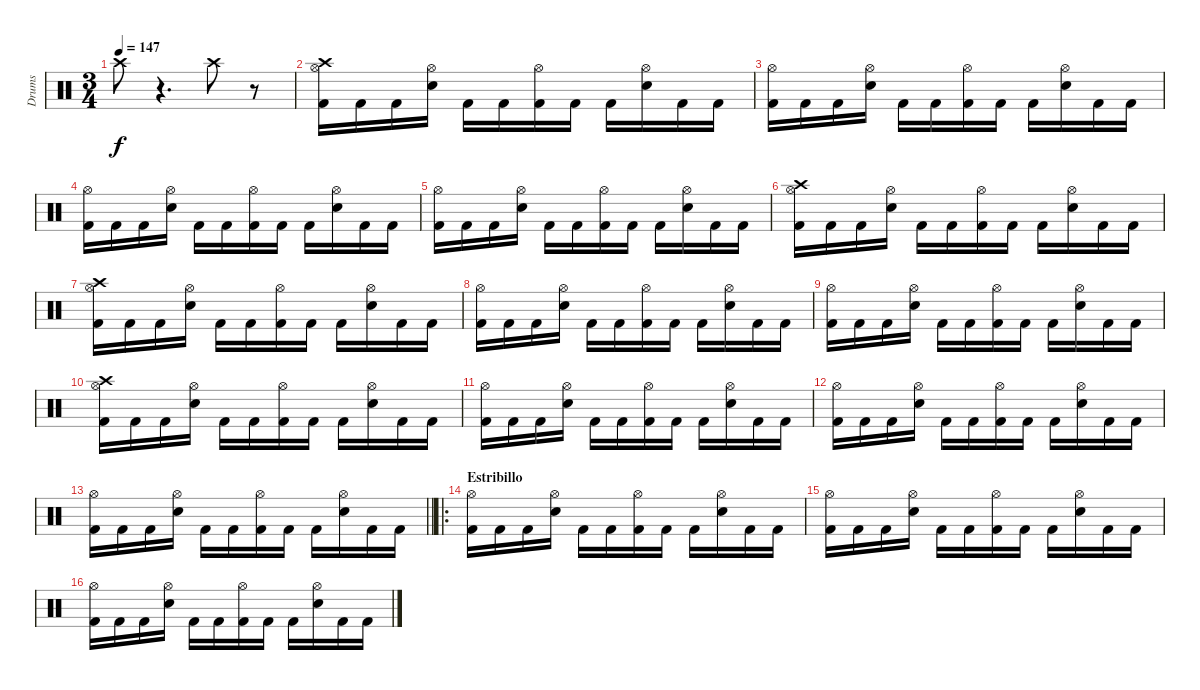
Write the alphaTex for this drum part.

\track ("Drums" "Drums") {instrument percussion}
\staff {score}
\articulation defaults
\ts (3 4)
\tempo 147
\clef neutral
\ks c "Crash high (hit)".8{dy f}
r.4{d} "Crash high (hit)".8 r.8 |
("Kick (hit) 2" "Crash high (hit)" "Hi-Hat (open)").16 "Kick (hit) 2".16 "Kick (hit) 2".16 ("Snare (hit) 2" "Hi-Hat (open)").16 "Kick (hit) 2".16 "Kick (hit) 2".16 ("Kick (hit) 2" "Hi-Hat (open)").16 "Kick (hit) 2".16 "Kick (hit) 2".16 ("Snare (hit) 2" "Hi-Hat (open)").16 "Kick (hit) 2".16 "Kick (hit) 2".16 |
("Kick (hit) 2" "Hi-Hat (open)").16 "Kick (hit) 2".16 "Kick (hit) 2".16 ("Snare (hit) 2" "Hi-Hat (open)").16 "Kick (hit) 2".16 "Kick (hit) 2".16 ("Kick (hit) 2" "Hi-Hat (open)").16 "Kick (hit) 2".16 "Kick (hit) 2".16 ("Snare (hit) 2" "Hi-Hat (open)").16 "Kick (hit) 2".16 "Kick (hit) 2".16 |
("Kick (hit) 2" "Hi-Hat (open)").16 "Kick (hit) 2".16 "Kick (hit) 2".16 ("Snare (hit) 2" "Hi-Hat (open)").16 "Kick (hit) 2".16 "Kick (hit) 2".16 ("Kick (hit) 2" "Hi-Hat (open)").16 "Kick (hit) 2".16 "Kick (hit) 2".16 ("Snare (hit) 2" "Hi-Hat (open)").16 "Kick (hit) 2".16 "Kick (hit) 2".16 |
("Kick (hit) 2" "Hi-Hat (open)").16 "Kick (hit) 2".16 "Kick (hit) 2".16 ("Snare (hit) 2" "Hi-Hat (open)").16 "Kick (hit) 2".16 "Kick (hit) 2".16 ("Kick (hit) 2" "Hi-Hat (open)").16 "Kick (hit) 2".16 "Kick (hit) 2".16 ("Snare (hit) 2" "Hi-Hat (open)").16 "Kick (hit) 2".16 "Kick (hit) 2".16 |
("Kick (hit) 2" "Crash high (hit)" "Hi-Hat (open)").16 "Kick (hit) 2".16 "Kick (hit) 2".16 ("Snare (hit) 2" "Hi-Hat (open)").16 "Kick (hit) 2".16 "Kick (hit) 2".16 ("Kick (hit) 2" "Hi-Hat (open)").16 "Kick (hit) 2".16 "Kick (hit) 2".16 ("Snare (hit) 2" "Hi-Hat (open)").16 "Kick (hit) 2".16 "Kick (hit) 2".16 |
("Kick (hit) 2" "Crash high (hit)" "Hi-Hat (open)").16 "Kick (hit) 2".16 "Kick (hit) 2".16 ("Snare (hit) 2" "Hi-Hat (open)").16 "Kick (hit) 2".16 "Kick (hit) 2".16 ("Kick (hit) 2" "Hi-Hat (open)").16 "Kick (hit) 2".16 "Kick (hit) 2".16 ("Snare (hit) 2" "Hi-Hat (open)").16 "Kick (hit) 2".16 "Kick (hit) 2".16 |
("Kick (hit) 2" "Hi-Hat (open)").16 "Kick (hit) 2".16 "Kick (hit) 2".16 ("Snare (hit) 2" "Hi-Hat (open)").16 "Kick (hit) 2".16 "Kick (hit) 2".16 ("Kick (hit) 2" "Hi-Hat (open)").16 "Kick (hit) 2".16 "Kick (hit) 2".16 ("Snare (hit) 2" "Hi-Hat (open)").16 "Kick (hit) 2".16 "Kick (hit) 2".16 |
("Kick (hit) 2" "Hi-Hat (open)").16 "Kick (hit) 2".16 "Kick (hit) 2".16 ("Snare (hit) 2" "Hi-Hat (open)").16 "Kick (hit) 2".16 "Kick (hit) 2".16 ("Kick (hit) 2" "Hi-Hat (open)").16 "Kick (hit) 2".16 "Kick (hit) 2".16 ("Snare (hit) 2" "Hi-Hat (open)").16 "Kick (hit) 2".16 "Kick (hit) 2".16 |
("Kick (hit) 2" "Crash high (hit)" "Hi-Hat (open)").16 "Kick (hit) 2".16 "Kick (hit) 2".16 ("Snare (hit) 2" "Hi-Hat (open)").16 "Kick (hit) 2".16 "Kick (hit) 2".16 ("Kick (hit) 2" "Hi-Hat (open)").16 "Kick (hit) 2".16 "Kick (hit) 2".16 ("Snare (hit) 2" "Hi-Hat (open)").16 "Kick (hit) 2".16 "Kick (hit) 2".16 |
("Kick (hit) 2" "Hi-Hat (open)").16 "Kick (hit) 2".16 "Kick (hit) 2".16 ("Snare (hit) 2" "Hi-Hat (open)").16 "Kick (hit) 2".16 "Kick (hit) 2".16 ("Kick (hit) 2" "Hi-Hat (open)").16 "Kick (hit) 2".16 "Kick (hit) 2".16 ("Snare (hit) 2" "Hi-Hat (open)").16 "Kick (hit) 2".16 "Kick (hit) 2".16 |
("Kick (hit) 2" "Hi-Hat (open)").16 "Kick (hit) 2".16 "Kick (hit) 2".16 ("Snare (hit) 2" "Hi-Hat (open)").16 "Kick (hit) 2".16 "Kick (hit) 2".16 ("Kick (hit) 2" "Hi-Hat (open)").16 "Kick (hit) 2".16 "Kick (hit) 2".16 ("Snare (hit) 2" "Hi-Hat (open)").16 "Kick (hit) 2".16 "Kick (hit) 2".16 |
\barLineRight lightlight
("Kick (hit) 2" "Hi-Hat (open)").16 "Kick (hit) 2".16 "Kick (hit) 2".16 ("Snare (hit) 2" "Hi-Hat (open)").16 "Kick (hit) 2".16 "Kick (hit) 2".16 ("Kick (hit) 2" "Hi-Hat (open)").16 "Kick (hit) 2".16 "Kick (hit) 2".16 ("Snare (hit) 2" "Hi-Hat (open)").16 "Kick (hit) 2".16 "Kick (hit) 2".16 |
\ro
\section ("" "Estribillo")
("Kick (hit) 2" "Hi-Hat (open)").16 "Kick (hit) 2".16 "Kick (hit) 2".16 ("Snare (hit) 2" "Hi-Hat (open)").16 "Kick (hit) 2".16 "Kick (hit) 2".16 ("Kick (hit) 2" "Hi-Hat (open)").16 "Kick (hit) 2".16 "Kick (hit) 2".16 ("Snare (hit) 2" "Hi-Hat (open)").16 "Kick (hit) 2".16 "Kick (hit) 2".16 |
("Kick (hit) 2" "Hi-Hat (open)").16 "Kick (hit) 2".16 "Kick (hit) 2".16 ("Snare (hit) 2" "Hi-Hat (open)").16 "Kick (hit) 2".16 "Kick (hit) 2".16 ("Kick (hit) 2" "Hi-Hat (open)").16 "Kick (hit) 2".16 "Kick (hit) 2".16 ("Snare (hit) 2" "Hi-Hat (open)").16 "Kick (hit) 2".16 "Kick (hit) 2".16 |
("Kick (hit) 2" "Hi-Hat (open)").16 "Kick (hit) 2".16 "Kick (hit) 2".16 ("Snare (hit) 2" "Hi-Hat (open)").16 "Kick (hit) 2".16 "Kick (hit) 2".16 ("Kick (hit) 2" "Hi-Hat (open)").16 "Kick (hit) 2".16 "Kick (hit) 2".16 ("Snare (hit) 2" "Hi-Hat (open)").16 "Kick (hit) 2".16 "Kick (hit) 2".16
